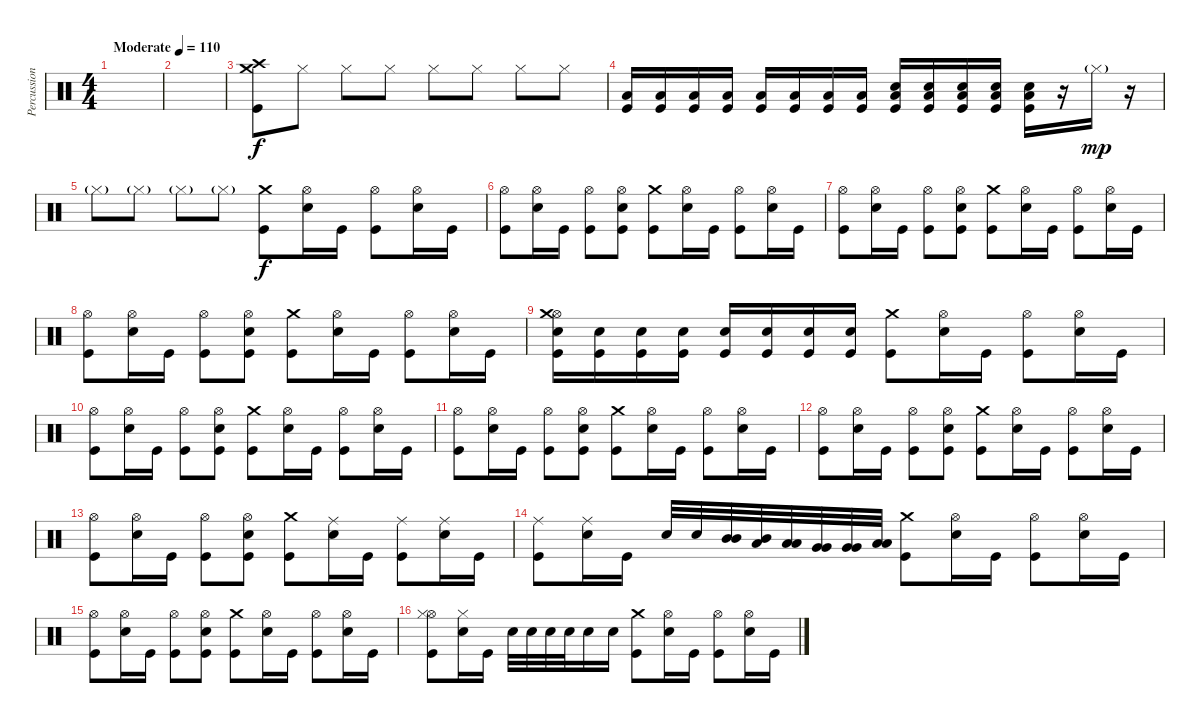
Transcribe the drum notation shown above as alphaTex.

\track ("Percussion" "Percussion") {instrument percussion}
\staff {score}
\articulation defaults
\ts (4 4)
\tempo (110 "Moderate")
\clef neutral
\ks c
|
|
("Crash medium (hit)" "Crash high (hit)" "Kick (hit)").8 "Hi-Hat (closed)".8 "Hi-Hat (closed)".8 "Hi-Hat (closed)".8 "Hi-Hat (closed)".8 "Hi-Hat (closed)".8 "Hi-Hat (closed)".8 "Hi-Hat (closed)".8 |
("Low Floor Tom (hit)" "Kick (hit)").16 ("Low Floor Tom (hit)" "Kick (hit)").16 ("Low Floor Tom (hit)" "Kick (hit)").16 ("Low Floor Tom (hit)" "Kick (hit)").16 ("Low Floor Tom (hit)" "Kick (hit)").16 ("Low Floor Tom (hit)" "Kick (hit)").16 ("Low Floor Tom (hit)" "Kick (hit)").16 ("Low Floor Tom (hit)" "Kick (hit)").16 ("Electric Snare (hit)" "Low Floor Tom (hit)" "Kick (hit)").16 ("Electric Snare (hit)" "Low Floor Tom (hit)" "Kick (hit)").16 ("Electric Snare (hit)" "Low Floor Tom (hit)" "Kick (hit)").16 ("Electric Snare (hit)" "Low Floor Tom (hit)" "Kick (hit)").16 ("Electric Snare (hit)" "Low Floor Tom (hit)" "Kick (hit)").16 r.16 "Hi-Hat (closed)"{g}.16{dy mp} r.16 |
"Hi-Hat (closed)"{g}.8 "Hi-Hat (closed)"{g}.8 "Hi-Hat (closed)"{g}.8 "Hi-Hat (closed)"{g}.8 ("Crash medium (hit)" "Kick (hit)").8{dy f} ("Hi-Hat (open)" "Electric Snare (hit)").16 "Kick (hit)".16 ("Hi-Hat (open)" "Kick (hit)").8 ("Hi-Hat (open)" "Electric Snare (hit)").16 "Kick (hit)".16 |
("Hi-Hat (open)" "Kick (hit)").8 ("Hi-Hat (open)" "Electric Snare (hit)").16 "Kick (hit)".16 ("Hi-Hat (open)" "Kick (hit)").8 ("Hi-Hat (open)" "Electric Snare (hit)" "Kick (hit)").8 ("Crash medium (hit)" "Kick (hit)").8 ("Hi-Hat (open)" "Electric Snare (hit)").16 "Kick (hit)".16 ("Hi-Hat (open)" "Kick (hit)").8 ("Hi-Hat (open)" "Electric Snare (hit)").16 "Kick (hit)".16 |
("Hi-Hat (open)" "Kick (hit)").8 ("Hi-Hat (open)" "Electric Snare (hit)").16 "Kick (hit)".16 ("Hi-Hat (open)" "Kick (hit)").8 ("Hi-Hat (open)" "Electric Snare (hit)" "Kick (hit)").8 ("Crash medium (hit)" "Kick (hit)").8 ("Hi-Hat (open)" "Electric Snare (hit)").16 "Kick (hit)".16 ("Hi-Hat (open)" "Kick (hit)").8 ("Hi-Hat (open)" "Electric Snare (hit)").16 "Kick (hit)".16 |
("Hi-Hat (open)" "Kick (hit)").8 ("Hi-Hat (open)" "Electric Snare (hit)").16 "Kick (hit)".16 ("Hi-Hat (open)" "Kick (hit)").8 ("Hi-Hat (open)" "Electric Snare (hit)" "Kick (hit)").8 ("Crash medium (hit)" "Kick (hit)").8 ("Hi-Hat (open)" "Electric Snare (hit)").16 "Kick (hit)".16 ("Hi-Hat (open)" "Kick (hit)").8 ("Hi-Hat (open)" "Electric Snare (hit)").16 "Kick (hit)".16 |
("Hi-Hat (open)" "Crash medium (hit)" "Electric Snare (hit)" "Kick (hit)").16 ("Electric Snare (hit)" "Kick (hit)").16 ("Electric Snare (hit)" "Kick (hit)").16 ("Electric Snare (hit)" "Kick (hit)").16 ("Electric Snare (hit)" "Kick (hit)").16 ("Electric Snare (hit)" "Kick (hit)").16 ("Electric Snare (hit)" "Kick (hit)").16 ("Electric Snare (hit)" "Kick (hit)").16 ("Crash medium (hit)" "Kick (hit)").8 ("Hi-Hat (open)" "Electric Snare (hit)").16 "Kick (hit)".16 ("Hi-Hat (open)" "Kick (hit)").8 ("Hi-Hat (open)" "Electric Snare (hit)").16 "Kick (hit)".16 |
("Hi-Hat (open)" "Kick (hit)").8 ("Hi-Hat (open)" "Electric Snare (hit)").16 "Kick (hit)".16 ("Hi-Hat (open)" "Kick (hit)").8 ("Hi-Hat (open)" "Electric Snare (hit)" "Kick (hit)").8 ("Crash medium (hit)" "Kick (hit)").8 ("Hi-Hat (open)" "Electric Snare (hit)").16 "Kick (hit)".16 ("Hi-Hat (open)" "Kick (hit)").8 ("Hi-Hat (open)" "Electric Snare (hit)").16 "Kick (hit)".16 |
("Hi-Hat (open)" "Kick (hit)").8 ("Hi-Hat (open)" "Electric Snare (hit)").16 "Kick (hit)".16 ("Hi-Hat (open)" "Kick (hit)").8 ("Hi-Hat (open)" "Electric Snare (hit)" "Kick (hit)").8 ("Crash medium (hit)" "Kick (hit)").8 ("Hi-Hat (open)" "Electric Snare (hit)").16 "Kick (hit)".16 ("Hi-Hat (open)" "Kick (hit)").8 ("Hi-Hat (open)" "Electric Snare (hit)").16 "Kick (hit)".16 |
("Hi-Hat (open)" "Kick (hit)").8 ("Hi-Hat (open)" "Electric Snare (hit)").16 "Kick (hit)".16 ("Hi-Hat (open)" "Kick (hit)").8 ("Hi-Hat (open)" "Electric Snare (hit)" "Kick (hit)").8 ("Crash medium (hit)" "Kick (hit)").8 ("Hi-Hat (open)" "Electric Snare (hit)").16 "Kick (hit)".16 ("Hi-Hat (open)" "Kick (hit)").8 ("Hi-Hat (open)" "Electric Snare (hit)").16 "Kick (hit)".16 |
("Hi-Hat (open)" "Kick (hit)").8 ("Hi-Hat (open)" "Electric Snare (hit)").16 "Kick (hit)".16 ("Hi-Hat (open)" "Kick (hit)").8 ("Hi-Hat (open)" "Electric Snare (hit)" "Kick (hit)").8 ("Crash medium (hit)" "Kick (hit)").8 ("Ride (middle)" "Electric Snare (hit)").16 "Kick (hit)".16 ("Ride (middle)" "Kick (hit)").8 ("Ride (middle)" "Electric Snare (hit)").16 "Kick (hit)".16 |
("Ride (middle)" "Kick (hit)").8 ("Ride (middle)" "Electric Snare (hit)").16 "Kick (hit)".16 "Electric Snare (hit)".32 "Electric Snare (hit)".32 ("Mid Tom (hit)" "Mid Tom (hit)").32 ("Mid Tom (hit)" "Low Tom (hit)").32 ("Low Tom (hit)" "Low Tom (hit)").32 ("Very Low Tom (hit)" "Very Low Tom (hit)").32 ("Very Low Tom (hit)" "Very Low Tom (hit)").32 ("Low Floor Tom (hit)" "Low Floor Tom (hit)").32 ("Crash medium (hit)" "Kick (hit)").8 ("Hi-Hat (open)" "Electric Snare (hit)").16 "Kick (hit)".16 ("Hi-Hat (open)" "Kick (hit)").8 ("Hi-Hat (open)" "Electric Snare (hit)").16 "Kick (hit)".16 |
("Hi-Hat (open)" "Kick (hit)").8 ("Hi-Hat (open)" "Electric Snare (hit)").16 "Kick (hit)".16 ("Hi-Hat (open)" "Kick (hit)").8 ("Hi-Hat (open)" "Electric Snare (hit)" "Kick (hit)").8 ("Crash medium (hit)" "Kick (hit)").8 ("Hi-Hat (open)" "Electric Snare (hit)").16 "Kick (hit)".16 ("Hi-Hat (open)" "Kick (hit)").8 ("Hi-Hat (open)" "Electric Snare (hit)").16 "Kick (hit)".16 |
("Hi-Hat (open)" "Hi-Hat (closed)" "Kick (hit)").8 ("Hi-Hat (closed)" "Electric Snare (hit)").16 "Kick (hit)".16 "Electric Snare (hit)".32 "Electric Snare (hit)".32 "Electric Snare (hit)".32 "Electric Snare (hit)".32 "Electric Snare (hit)".16 "Electric Snare (hit)".16 ("Crash medium (hit)" "Kick (hit)").8 ("Hi-Hat (open)" "Electric Snare (hit)").16 "Kick (hit)".16 ("Hi-Hat (open)" "Kick (hit)").8 ("Hi-Hat (open)" "Electric Snare (hit)").16 "Kick (hit)".16
